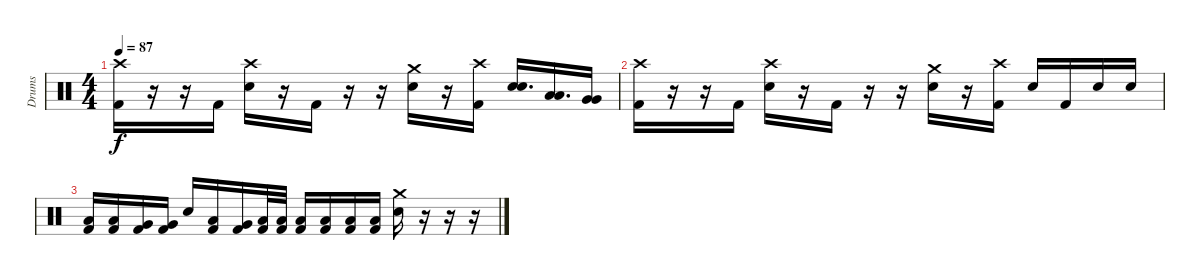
\track ("Drums" "Drums") {instrument percussion}
\staff {score}
\articulation defaults
\ts (4 4)
\tempo 87
\clef neutral
\ks c
("Crash high (hit)" "Kick (hit) 2").16{dy f} r.16 r.16 "Kick (hit) 2".16 ("Crash high (hit)" "Electric Snare (hit)").16 r.16 "Kick (hit) 2".16 r.16 r.16 ("Crash medium (hit)" "Electric Snare (hit)").16 r.16 ("Crash high (hit)" "Kick (hit) 2").16 ("Electric Snare (hit)" "Electric Snare (hit)").16{d} ("Low Tom (hit)" "Low Tom (hit)").16{d} ("Very Low Tom (hit)" "Very Low Tom (hit)").16 |
("Crash high (hit)" "Kick (hit) 2").16 r.16 r.16 "Kick (hit) 2".16 ("Crash high (hit)" "Electric Snare (hit)").16 r.16 "Kick (hit) 2".16 r.16 r.16 ("Crash medium (hit)" "Electric Snare (hit)").16 r.16 ("Crash high (hit)" "Kick (hit) 2").16 "Electric Snare (hit)".16 "Kick (hit) 2".16 "Electric Snare (hit)".16 "Electric Snare (hit)".16 |
("Low Tom (hit)" "Kick (hit) 2").16 ("Low Tom (hit)" "Kick (hit) 2").16 ("Very Low Tom (hit)" "Kick (hit) 2").16 ("Very Low Tom (hit)" "Kick (hit) 2").16 "Electric Snare (hit)".16 ("Low Tom (hit)" "Kick (hit) 2").16 ("Very Low Tom (hit)" "Kick (hit) 2").16 ("Low Floor Tom (hit)" "Kick (hit) 2").32 ("Low Floor Tom (hit)" "Kick (hit) 2").32 ("Low Floor Tom (hit)" "Kick (hit) 2").16 ("Low Floor Tom (hit)" "Kick (hit) 2").16 ("Low Floor Tom (hit)" "Kick (hit) 2").16 ("Low Floor Tom (hit)" "Kick (hit) 2").16 ("Crash medium (hit)" "Electric Snare (hit)").16 r.16 r.16 r.16
